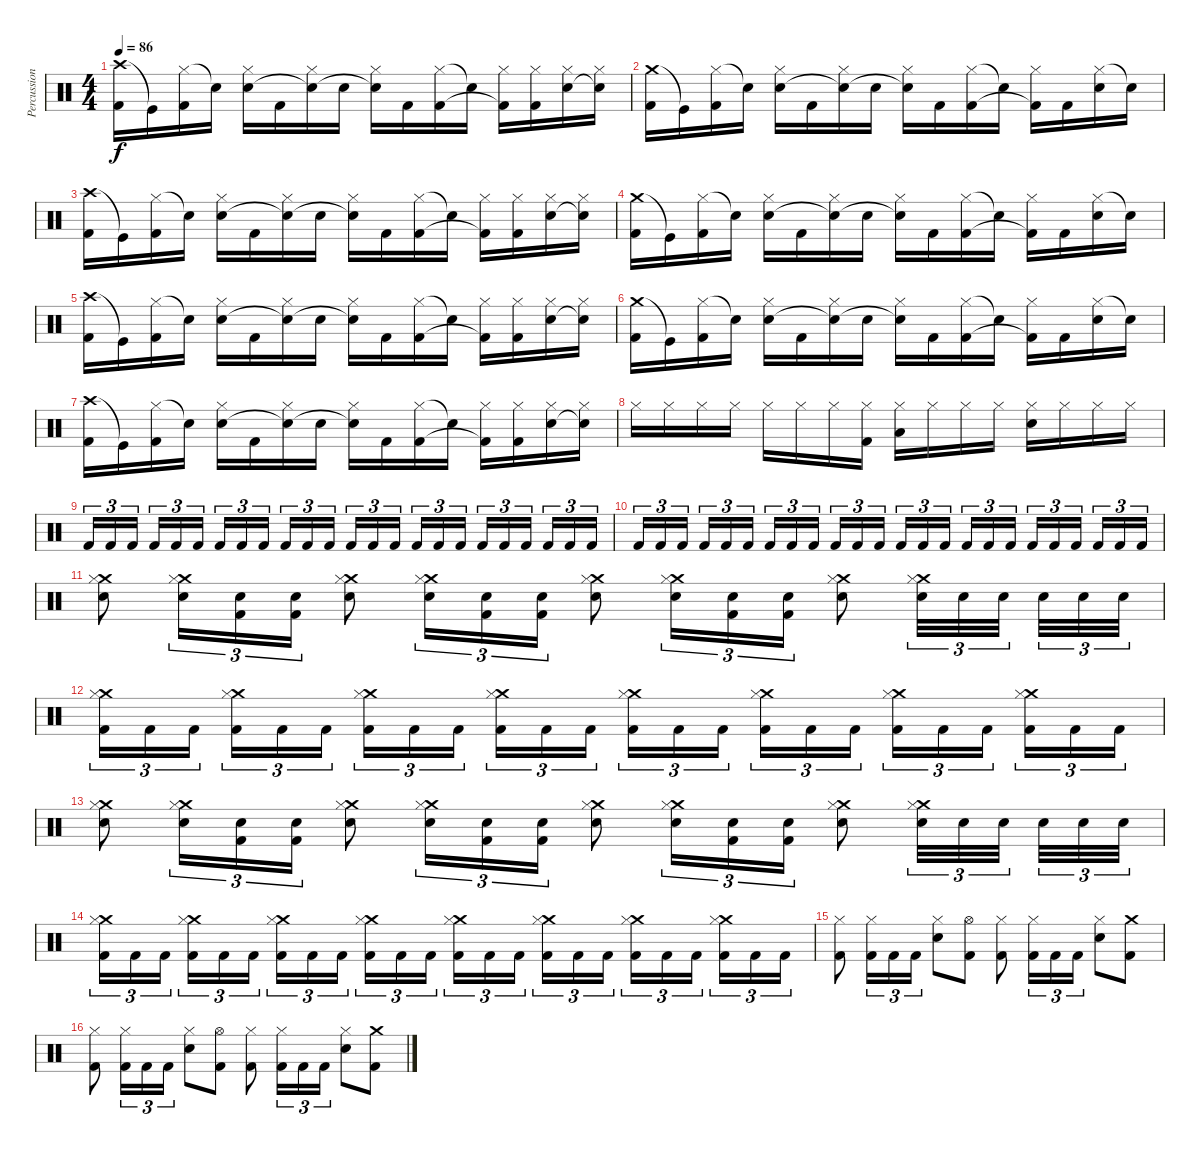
\track ("Percussion" "Percussion") {instrument percussion}
\staff {score}
\articulation defaults
\ts (4 4)
\tempo 86
\clef neutral
\ks c
("Crash high (hit)" "Kick (hit) 2").16{dy f} "Kick (hit)"{t}.16 ("Hi-Hat (closed)" "Kick (hit) 2").16 "Snare (hit)"{t}.16 ("Hi-Hat (closed)" "Electric Snare (hit)").16 "Kick (hit) 2".16 ("Hi-Hat (closed)" "Snare (hit)"{t}).16 "Electric Snare (hit)".16 ("Hi-Hat (closed)" "Snare (hit)"{t}).16 "Kick (hit) 2".16 ("Hi-Hat (closed)" "Kick (hit) 2").16 "Snare (hit)"{t}.16 ("Hi-Hat (closed)" "Kick (hit) 2"{t}).16 ("Hi-Hat (closed)" "Kick (hit) 2").16 ("Hi-Hat (closed)" "Electric Snare (hit)").16 ("Hi-Hat (closed)" "Snare (hit)"{t}).16 |
("Crash medium (hit)" "Kick (hit) 2").16 "Kick (hit)"{t}.16 ("Hi-Hat (closed)" "Kick (hit) 2").16 "Snare (hit)"{t}.16 ("Hi-Hat (closed)" "Electric Snare (hit)").16 "Kick (hit) 2".16 ("Hi-Hat (closed)" "Snare (hit)"{t}).16 "Electric Snare (hit)".16 ("Hi-Hat (closed)" "Snare (hit)"{t}).16 "Kick (hit) 2".16 ("Hi-Hat (closed)" "Kick (hit) 2").16 "Snare (hit)"{t}.16 ("Hi-Hat (closed)" "Kick (hit) 2"{t}).16 "Kick (hit) 2".16 ("Hi-Hat (closed)" "Electric Snare (hit)").16 "Snare (hit)"{t}.16 |
("Crash high (hit)" "Kick (hit) 2").16 "Kick (hit)"{t}.16 ("Hi-Hat (closed)" "Kick (hit) 2").16 "Snare (hit)"{t}.16 ("Hi-Hat (closed)" "Electric Snare (hit)").16 "Kick (hit) 2".16 ("Hi-Hat (closed)" "Snare (hit)"{t}).16 "Electric Snare (hit)".16 ("Hi-Hat (closed)" "Snare (hit)"{t}).16 "Kick (hit) 2".16 ("Hi-Hat (closed)" "Kick (hit) 2").16 "Snare (hit)"{t}.16 ("Hi-Hat (closed)" "Kick (hit) 2"{t}).16 ("Hi-Hat (closed)" "Kick (hit) 2").16 ("Hi-Hat (closed)" "Electric Snare (hit)").16 ("Hi-Hat (closed)" "Snare (hit)"{t}).16 |
("Crash medium (hit)" "Kick (hit) 2").16 "Kick (hit)"{t}.16 ("Hi-Hat (closed)" "Kick (hit) 2").16 "Snare (hit)"{t}.16 ("Hi-Hat (closed)" "Electric Snare (hit)").16 "Kick (hit) 2".16 ("Hi-Hat (closed)" "Snare (hit)"{t}).16 "Electric Snare (hit)".16 ("Hi-Hat (closed)" "Snare (hit)"{t}).16 "Kick (hit) 2".16 ("Hi-Hat (closed)" "Kick (hit) 2").16 "Snare (hit)"{t}.16 ("Hi-Hat (closed)" "Kick (hit) 2"{t}).16 "Kick (hit) 2".16 ("Hi-Hat (closed)" "Electric Snare (hit)").16 "Snare (hit)"{t}.16 |
("Crash high (hit)" "Kick (hit) 2").16 "Kick (hit)"{t}.16 ("Hi-Hat (closed)" "Kick (hit) 2").16 "Snare (hit)"{t}.16 ("Hi-Hat (closed)" "Electric Snare (hit)").16 "Kick (hit) 2".16 ("Hi-Hat (closed)" "Snare (hit)"{t}).16 "Electric Snare (hit)".16 ("Hi-Hat (closed)" "Snare (hit)"{t}).16 "Kick (hit) 2".16 ("Hi-Hat (closed)" "Kick (hit) 2").16 "Snare (hit)"{t}.16 ("Hi-Hat (closed)" "Kick (hit) 2"{t}).16 ("Hi-Hat (closed)" "Kick (hit) 2").16 ("Hi-Hat (closed)" "Electric Snare (hit)").16 ("Hi-Hat (closed)" "Snare (hit)"{t}).16 |
("Crash medium (hit)" "Kick (hit) 2").16 "Kick (hit)"{t}.16 ("Hi-Hat (closed)" "Kick (hit) 2").16 "Snare (hit)"{t}.16 ("Hi-Hat (closed)" "Electric Snare (hit)").16 "Kick (hit) 2".16 ("Hi-Hat (closed)" "Snare (hit)"{t}).16 "Electric Snare (hit)".16 ("Hi-Hat (closed)" "Snare (hit)"{t}).16 "Kick (hit) 2".16 ("Hi-Hat (closed)" "Kick (hit) 2").16 "Snare (hit)"{t}.16 ("Hi-Hat (closed)" "Kick (hit) 2"{t}).16 "Kick (hit) 2".16 ("Hi-Hat (closed)" "Electric Snare (hit)").16 "Snare (hit)"{t}.16 |
("Crash high (hit)" "Kick (hit) 2").16 "Kick (hit)"{t}.16 ("Hi-Hat (closed)" "Kick (hit) 2").16 "Snare (hit)"{t}.16 ("Hi-Hat (closed)" "Electric Snare (hit)").16 "Kick (hit) 2".16 ("Hi-Hat (closed)" "Snare (hit)"{t}).16 "Electric Snare (hit)".16 ("Hi-Hat (closed)" "Snare (hit)"{t}).16 "Kick (hit) 2".16 ("Hi-Hat (closed)" "Kick (hit) 2").16 "Snare (hit)"{t}.16 ("Hi-Hat (closed)" "Kick (hit) 2"{t}).16 ("Hi-Hat (closed)" "Kick (hit) 2").16 ("Hi-Hat (closed)" "Electric Snare (hit)").16 ("Hi-Hat (closed)" "Snare (hit)"{t}).16 |
"Hi-Hat (closed)".16 "Hi-Hat (closed)".16 "Hi-Hat (closed)".16 "Hi-Hat (closed)".16 "Hi-Hat (closed)".16 "Hi-Hat (closed)".16 "Hi-Hat (closed)".16 ("Hi-Hat (closed)" "Kick (hit) 2").16 ("Hi-Hat (closed)" "Low Tom (hit)").16 "Hi-Hat (closed)".16 "Hi-Hat (closed)".16 "Hi-Hat (closed)".16 ("Hi-Hat (closed)" "Electric Snare (hit)").16 "Hi-Hat (closed)".16 "Hi-Hat (closed)".16 "Hi-Hat (closed)".16 |
"Kick (hit) 2".16{tu (3 2)} "Kick (hit) 2".16{tu (3 2)} "Kick (hit) 2".16{tu (3 2)} "Kick (hit) 2".16{tu (3 2)} "Kick (hit) 2".16{tu (3 2)} "Kick (hit) 2".16{tu (3 2)} "Kick (hit) 2".16{tu (3 2)} "Kick (hit) 2".16{tu (3 2)} "Kick (hit) 2".16{tu (3 2)} "Kick (hit) 2".16{tu (3 2)} "Kick (hit) 2".16{tu (3 2)} "Kick (hit) 2".16{tu (3 2)} "Kick (hit) 2".16{tu (3 2)} "Kick (hit) 2".16{tu (3 2)} "Kick (hit) 2".16{tu (3 2)} "Kick (hit) 2".16{tu (3 2)} "Kick (hit) 2".16{tu (3 2)} "Kick (hit) 2".16{tu (3 2)} "Kick (hit) 2".16{tu (3 2)} "Kick (hit) 2".16{tu (3 2)} "Kick (hit) 2".16{tu (3 2)} "Kick (hit) 2".16{tu (3 2)} "Kick (hit) 2".16{tu (3 2)} "Kick (hit) 2".16{tu (3 2)} |
"Kick (hit) 2".16{tu (3 2)} "Kick (hit) 2".16{tu (3 2)} "Kick (hit) 2".16{tu (3 2)} "Kick (hit) 2".16{tu (3 2)} "Kick (hit) 2".16{tu (3 2)} "Kick (hit) 2".16{tu (3 2)} "Kick (hit) 2".16{tu (3 2)} "Kick (hit) 2".16{tu (3 2)} "Kick (hit) 2".16{tu (3 2)} "Kick (hit) 2".16{tu (3 2)} "Kick (hit) 2".16{tu (3 2)} "Kick (hit) 2".16{tu (3 2)} "Kick (hit) 2".16{tu (3 2)} "Kick (hit) 2".16{tu (3 2)} "Kick (hit) 2".16{tu (3 2)} "Kick (hit) 2".16{tu (3 2)} "Kick (hit) 2".16{tu (3 2)} "Kick (hit) 2".16{tu (3 2)} "Kick (hit) 2".16{tu (3 2)} "Kick (hit) 2".16{tu (3 2)} "Kick (hit) 2".16{tu (3 2)} "Kick (hit) 2".16{tu (3 2)} "Kick (hit) 2".16{tu (3 2)} "Kick (hit) 2".16{tu (3 2)} |
("Crash medium (hit)" "Hi-Hat (closed)" "Electric Snare (hit)").8 ("Crash medium (hit)" "Hi-Hat (closed)" "Electric Snare (hit)").16{tu (3 2)} ("Kick (hit) 2" "Electric Snare (hit)").16{tu (3 2)} ("Kick (hit) 2" "Electric Snare (hit)").16{tu (3 2)} ("Crash medium (hit)" "Hi-Hat (closed)" "Electric Snare (hit)").8 ("Crash medium (hit)" "Hi-Hat (closed)" "Electric Snare (hit)").16{tu (3 2)} ("Kick (hit) 2" "Electric Snare (hit)").16{tu (3 2)} ("Kick (hit) 2" "Electric Snare (hit)").16{tu (3 2)} ("Crash medium (hit)" "Hi-Hat (closed)" "Electric Snare (hit)").8 ("Crash medium (hit)" "Hi-Hat (closed)" "Electric Snare (hit)").16{tu (3 2)} ("Kick (hit) 2" "Electric Snare (hit)").16{tu (3 2)} ("Kick (hit) 2" "Electric Snare (hit)").16{tu (3 2)} ("Crash medium (hit)" "Hi-Hat (closed)" "Electric Snare (hit)").8 ("Crash medium (hit)" "Hi-Hat (closed)" "Electric Snare (hit)").32{tu (3 2)} "Electric Snare (hit)".32{tu (3 2)} "Electric Snare (hit)".32{tu (3 2)} "Electric Snare (hit)".32{tu (3 2)} "Electric Snare (hit)".32{tu (3 2)} "Electric Snare (hit)".32{tu (3 2)} |
("Crash medium (hit)" "Hi-Hat (closed)" "Kick (hit) 2").16{tu (3 2)} "Kick (hit) 2".16{tu (3 2)} "Kick (hit) 2".16{tu (3 2)} ("Crash medium (hit)" "Hi-Hat (closed)" "Kick (hit) 2").16{tu (3 2)} "Kick (hit) 2".16{tu (3 2)} "Kick (hit) 2".16{tu (3 2)} ("Crash medium (hit)" "Hi-Hat (closed)" "Kick (hit) 2").16{tu (3 2)} "Kick (hit) 2".16{tu (3 2)} "Kick (hit) 2".16{tu (3 2)} ("Crash medium (hit)" "Hi-Hat (closed)" "Kick (hit) 2").16{tu (3 2)} "Kick (hit) 2".16{tu (3 2)} "Kick (hit) 2".16{tu (3 2)} ("Crash medium (hit)" "Hi-Hat (closed)" "Kick (hit) 2").16{tu (3 2)} "Kick (hit) 2".16{tu (3 2)} "Kick (hit) 2".16{tu (3 2)} ("Crash medium (hit)" "Hi-Hat (closed)" "Kick (hit) 2").16{tu (3 2)} "Kick (hit) 2".16{tu (3 2)} "Kick (hit) 2".16{tu (3 2)} ("Crash medium (hit)" "Hi-Hat (closed)" "Kick (hit) 2").16{tu (3 2)} "Kick (hit) 2".16{tu (3 2)} "Kick (hit) 2".16{tu (3 2)} ("Crash medium (hit)" "Hi-Hat (closed)" "Kick (hit) 2").16{tu (3 2)} "Kick (hit) 2".16{tu (3 2)} "Kick (hit) 2".16{tu (3 2)} |
("Crash medium (hit)" "Hi-Hat (closed)" "Electric Snare (hit)").8 ("Crash medium (hit)" "Hi-Hat (closed)" "Electric Snare (hit)").16{tu (3 2)} ("Kick (hit) 2" "Electric Snare (hit)").16{tu (3 2)} ("Kick (hit) 2" "Electric Snare (hit)").16{tu (3 2)} ("Crash medium (hit)" "Hi-Hat (closed)" "Electric Snare (hit)").8 ("Crash medium (hit)" "Hi-Hat (closed)" "Electric Snare (hit)").16{tu (3 2)} ("Kick (hit) 2" "Electric Snare (hit)").16{tu (3 2)} ("Kick (hit) 2" "Electric Snare (hit)").16{tu (3 2)} ("Crash medium (hit)" "Hi-Hat (closed)" "Electric Snare (hit)").8 ("Crash medium (hit)" "Hi-Hat (closed)" "Electric Snare (hit)").16{tu (3 2)} ("Kick (hit) 2" "Electric Snare (hit)").16{tu (3 2)} ("Kick (hit) 2" "Electric Snare (hit)").16{tu (3 2)} ("Crash medium (hit)" "Hi-Hat (closed)" "Electric Snare (hit)").8 ("Crash medium (hit)" "Hi-Hat (closed)" "Electric Snare (hit)").32{tu (3 2)} "Electric Snare (hit)".32{tu (3 2)} "Electric Snare (hit)".32{tu (3 2)} "Electric Snare (hit)".32{tu (3 2)} "Electric Snare (hit)".32{tu (3 2)} "Electric Snare (hit)".32{tu (3 2)} |
("Crash medium (hit)" "Hi-Hat (closed)" "Kick (hit) 2").16{tu (3 2)} "Kick (hit) 2".16{tu (3 2)} "Kick (hit) 2".16{tu (3 2)} ("Crash medium (hit)" "Hi-Hat (closed)" "Kick (hit) 2").16{tu (3 2)} "Kick (hit) 2".16{tu (3 2)} "Kick (hit) 2".16{tu (3 2)} ("Crash medium (hit)" "Hi-Hat (closed)" "Kick (hit) 2").16{tu (3 2)} "Kick (hit) 2".16{tu (3 2)} "Kick (hit) 2".16{tu (3 2)} ("Crash medium (hit)" "Hi-Hat (closed)" "Kick (hit) 2").16{tu (3 2)} "Kick (hit) 2".16{tu (3 2)} "Kick (hit) 2".16{tu (3 2)} ("Crash medium (hit)" "Hi-Hat (closed)" "Kick (hit) 2").16{tu (3 2)} "Kick (hit) 2".16{tu (3 2)} "Kick (hit) 2".16{tu (3 2)} ("Crash medium (hit)" "Hi-Hat (closed)" "Kick (hit) 2").16{tu (3 2)} "Kick (hit) 2".16{tu (3 2)} "Kick (hit) 2".16{tu (3 2)} ("Crash medium (hit)" "Hi-Hat (closed)" "Kick (hit) 2").16{tu (3 2)} "Kick (hit) 2".16{tu (3 2)} "Kick (hit) 2".16{tu (3 2)} ("Crash medium (hit)" "Hi-Hat (closed)" "Kick (hit) 2").16{tu (3 2)} "Kick (hit) 2".16{tu (3 2)} "Kick (hit) 2".16{tu (3 2)} |
("Kick (hit) 2" "Hi-Hat (closed)").8 ("Kick (hit) 2" "Hi-Hat (closed)").16{tu (3 2)} "Kick (hit) 2".16{tu (3 2)} "Kick (hit) 2".16{tu (3 2)} ("Electric Snare (hit)" "Hi-Hat (closed)").8 ("Kick (hit) 2" "Hi-Hat (open)").8 ("Kick (hit) 2" "Hi-Hat (closed)").8 ("Kick (hit) 2" "Hi-Hat (closed)").16{tu (3 2)} "Kick (hit) 2".16{tu (3 2)} "Kick (hit) 2".16{tu (3 2)} ("Electric Snare (hit)" "Hi-Hat (closed)").8 ("Kick (hit) 2" "Crash medium (hit)").8 |
("Kick (hit) 2" "Hi-Hat (closed)").8 ("Kick (hit) 2" "Hi-Hat (closed)").16{tu (3 2)} "Kick (hit) 2".16{tu (3 2)} "Kick (hit) 2".16{tu (3 2)} ("Electric Snare (hit)" "Hi-Hat (closed)").8 ("Kick (hit) 2" "Hi-Hat (open)").8 ("Kick (hit) 2" "Hi-Hat (closed)").8 ("Kick (hit) 2" "Hi-Hat (closed)").16{tu (3 2)} "Kick (hit) 2".16{tu (3 2)} "Kick (hit) 2".16{tu (3 2)} ("Electric Snare (hit)" "Hi-Hat (closed)").8 ("Kick (hit) 2" "Crash medium (hit)").8
